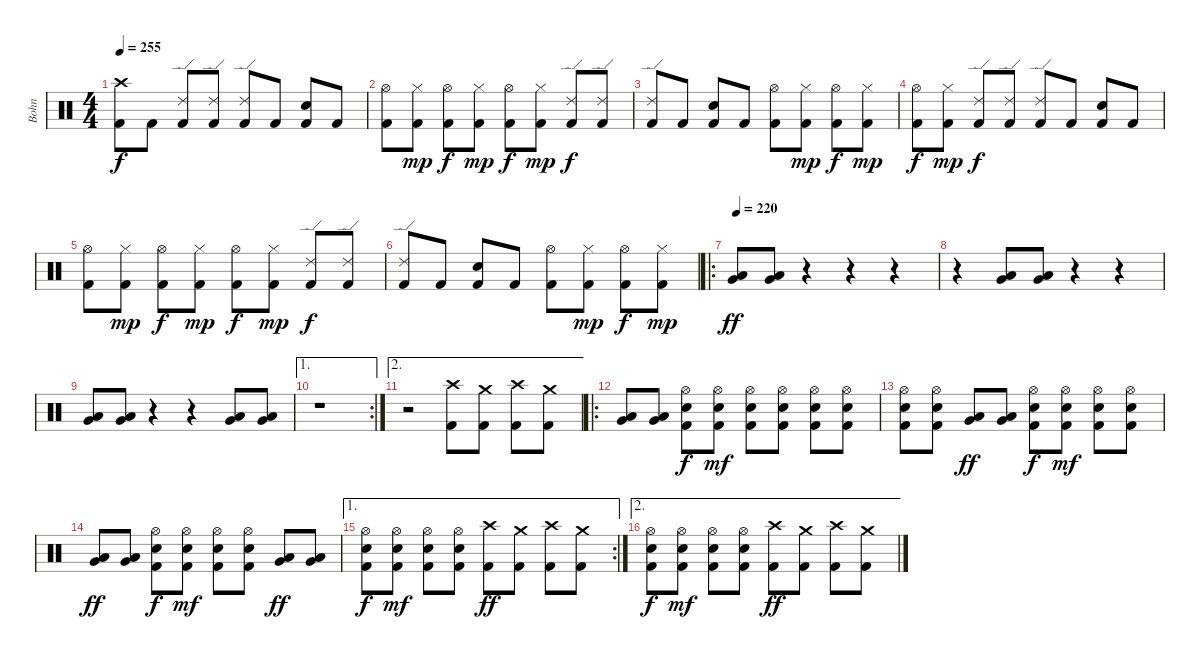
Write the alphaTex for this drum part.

\track ("Bohn" "Bohn") {instrument percussion}
\staff {score}
\articulation defaults
\ts (4 4)
\tempo 255
\clef neutral
\ks c
("Crash high (hit)" "Kick (hit) 2").8{dy f} "Kick (hit) 2".8 ("Ride (edge) 2" "Kick (hit) 2").8 ("Ride (edge) 2" "Kick (hit) 2").8 ("Ride (edge) 2" "Kick (hit) 2").8 "Kick (hit) 2".8 ("Electric Snare (hit)" "Kick (hit) 2").8 "Kick (hit) 2".8 |
("Hi-Hat (open)" "Kick (hit) 2").8 ("Hi-Hat (closed)" "Kick (hit) 2").8{dy mp} ("Hi-Hat (open)" "Kick (hit) 2").8{dy f} ("Hi-Hat (closed)" "Kick (hit) 2").8{dy mp} ("Hi-Hat (open)" "Kick (hit) 2").8{dy f} ("Hi-Hat (closed)" "Kick (hit) 2").8{dy mp} ("Ride (edge) 2" "Kick (hit) 2").8{dy f} ("Ride (edge) 2" "Kick (hit) 2").8 |
("Ride (edge) 2" "Kick (hit) 2").8 "Kick (hit) 2".8 ("Electric Snare (hit)" "Kick (hit) 2").8 "Kick (hit) 2".8 ("Hi-Hat (open)" "Kick (hit) 2").8 ("Hi-Hat (closed)" "Kick (hit) 2").8{dy mp} ("Hi-Hat (open)" "Kick (hit) 2").8{dy f} ("Hi-Hat (closed)" "Kick (hit) 2").8{dy mp} |
("Hi-Hat (open)" "Kick (hit) 2").8{dy f} ("Hi-Hat (closed)" "Kick (hit) 2").8{dy mp} ("Ride (edge) 2" "Kick (hit) 2").8{dy f} ("Ride (edge) 2" "Kick (hit) 2").8 ("Ride (edge) 2" "Kick (hit) 2").8 "Kick (hit) 2".8 ("Electric Snare (hit)" "Kick (hit) 2").8 "Kick (hit) 2".8 |
("Hi-Hat (open)" "Kick (hit) 2").8 ("Hi-Hat (closed)" "Kick (hit) 2").8{dy mp} ("Hi-Hat (open)" "Kick (hit) 2").8{dy f} ("Hi-Hat (closed)" "Kick (hit) 2").8{dy mp} ("Hi-Hat (open)" "Kick (hit) 2").8{dy f} ("Hi-Hat (closed)" "Kick (hit) 2").8{dy mp} ("Ride (edge) 2" "Kick (hit) 2").8{dy f} ("Ride (edge) 2" "Kick (hit) 2").8 |
("Ride (edge) 2" "Kick (hit) 2").8 "Kick (hit) 2".8 ("Electric Snare (hit)" "Kick (hit) 2").8 "Kick (hit) 2".8 ("Hi-Hat (open)" "Kick (hit) 2").8 ("Hi-Hat (closed)" "Kick (hit) 2").8{dy mp} ("Hi-Hat (open)" "Kick (hit) 2").8{dy f} ("Hi-Hat (closed)" "Kick (hit) 2").8{dy mp} |
\ro
\tempo 220
("Very Low Tom (hit)" "Low Floor Tom (hit)").8{dy ff} ("Very Low Tom (hit)" "Low Floor Tom (hit)").8 r.4 r.4 r.4 |
r.4 ("Very Low Tom (hit)" "Low Floor Tom (hit)").8 ("Very Low Tom (hit)" "Low Floor Tom (hit)").8 r.4 r.4 |
("Very Low Tom (hit)" "Low Floor Tom (hit)").8 ("Very Low Tom (hit)" "Low Floor Tom (hit)").8 r.4 r.4 ("Very Low Tom (hit)" "Low Floor Tom (hit)").8 ("Very Low Tom (hit)" "Low Floor Tom (hit)").8 |
\ae 1
\rc 2
r.1 |
\ae 2
r.2 ("Crash high (hit)" "Kick (hit) 2").8 ("Crash medium (hit)" "Kick (hit) 2").8 ("Crash high (hit)" "Kick (hit) 2").8 ("Crash medium (hit)" "Kick (hit) 2").8 |
\ro
("Very Low Tom (hit)" "Low Floor Tom (hit)").8 ("Very Low Tom (hit)" "Low Floor Tom (hit)").8 ("Hi-Hat (open)" "Electric Snare (hit)" "Kick (hit) 2").8{dy f} ("Hi-Hat (open)" "Electric Snare (hit)" "Kick (hit) 2").8{dy mf} ("Hi-Hat (open)" "Electric Snare (hit)" "Kick (hit) 2").8 ("Hi-Hat (open)" "Electric Snare (hit)" "Kick (hit) 2").8 ("Hi-Hat (open)" "Electric Snare (hit)" "Kick (hit) 2").8 ("Hi-Hat (open)" "Electric Snare (hit)" "Kick (hit) 2").8 |
("Hi-Hat (open)" "Electric Snare (hit)" "Kick (hit) 2").8 ("Hi-Hat (open)" "Electric Snare (hit)" "Kick (hit) 2").8 ("Very Low Tom (hit)" "Low Floor Tom (hit)").8{dy ff} ("Very Low Tom (hit)" "Low Floor Tom (hit)").8 ("Hi-Hat (open)" "Electric Snare (hit)" "Kick (hit) 2").8{dy f} ("Hi-Hat (open)" "Electric Snare (hit)" "Kick (hit) 2").8{dy mf} ("Hi-Hat (open)" "Electric Snare (hit)" "Kick (hit) 2").8 ("Hi-Hat (open)" "Electric Snare (hit)" "Kick (hit) 2").8 |
("Very Low Tom (hit)" "Low Floor Tom (hit)").8{dy ff} ("Very Low Tom (hit)" "Low Floor Tom (hit)").8 ("Hi-Hat (open)" "Electric Snare (hit)" "Kick (hit) 2").8{dy f} ("Hi-Hat (open)" "Electric Snare (hit)" "Kick (hit) 2").8{dy mf} ("Hi-Hat (open)" "Electric Snare (hit)" "Kick (hit) 2").8 ("Hi-Hat (open)" "Electric Snare (hit)" "Kick (hit) 2").8 ("Very Low Tom (hit)" "Low Floor Tom (hit)").8{dy ff} ("Very Low Tom (hit)" "Low Floor Tom (hit)").8 |
\ae 1
\rc 2
("Hi-Hat (open)" "Electric Snare (hit)" "Kick (hit) 2").8{dy f} ("Hi-Hat (open)" "Electric Snare (hit)" "Kick (hit) 2").8{dy mf} ("Hi-Hat (open)" "Electric Snare (hit)" "Kick (hit) 2").8 ("Hi-Hat (open)" "Electric Snare (hit)" "Kick (hit) 2").8 ("Crash high (hit)" "Kick (hit) 2").8{dy ff} ("Crash medium (hit)" "Kick (hit) 2").8 ("Crash high (hit)" "Kick (hit) 2").8 ("Crash medium (hit)" "Kick (hit) 2").8 |
\ae 2
("Hi-Hat (open)" "Electric Snare (hit)" "Kick (hit) 2").8{dy f} ("Hi-Hat (open)" "Electric Snare (hit)" "Kick (hit) 2").8{dy mf} ("Hi-Hat (open)" "Electric Snare (hit)" "Kick (hit) 2").8 ("Hi-Hat (open)" "Electric Snare (hit)" "Kick (hit) 2").8 ("Crash high (hit)" "Kick (hit) 2").8{dy ff} ("Crash medium (hit)" "Kick (hit) 2").8 ("Crash high (hit)" "Kick (hit) 2").8 ("Crash medium (hit)" "Kick (hit) 2").8
